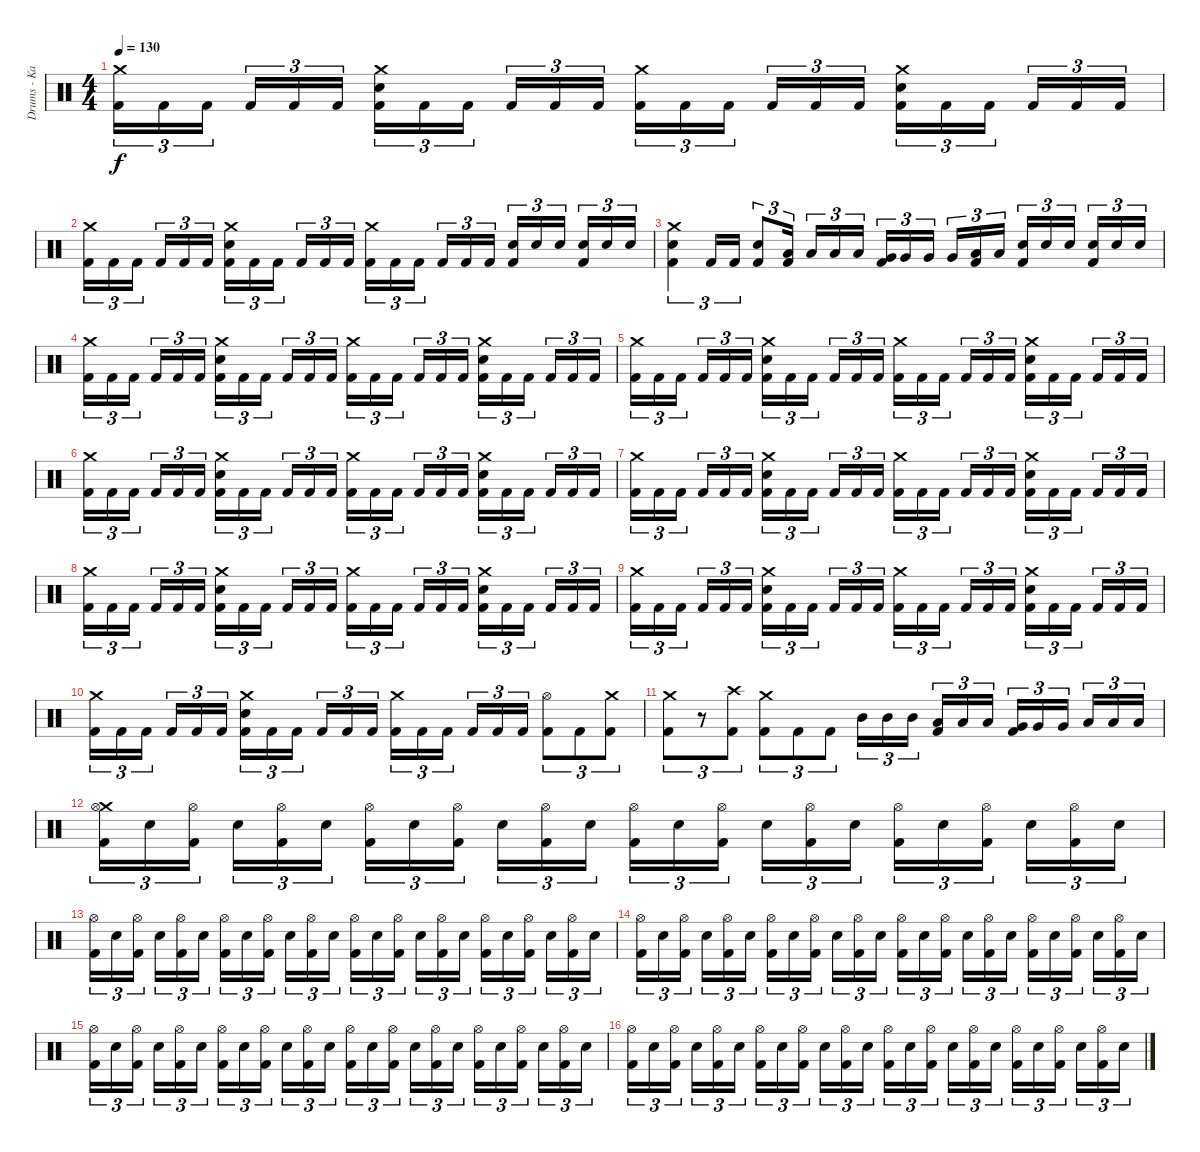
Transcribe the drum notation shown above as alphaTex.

\track ("Drums - Kai Hahto " "Drums - Ka") {instrument percussion}
\staff {score}
\articulation defaults
\ts (4 4)
\tempo 130
\clef neutral
\ks c
("Crash medium (hit)" "Kick (hit) 2").16{tu (3 2) dy f} "Kick (hit) 2".16{tu (3 2)} "Kick (hit) 2".16{tu (3 2) beam splitsecondary} "Kick (hit) 2".16{tu (3 2)} "Kick (hit) 2".16{tu (3 2)} "Kick (hit) 2".16{tu (3 2)} ("Crash medium (hit)" "Snare (hit) 2" "Kick (hit) 2").16{tu (3 2)} "Kick (hit) 2".16{tu (3 2)} "Kick (hit) 2".16{tu (3 2) beam splitsecondary} "Kick (hit) 2".16{tu (3 2)} "Kick (hit) 2".16{tu (3 2)} "Kick (hit) 2".16{tu (3 2)} ("Crash medium (hit)" "Kick (hit) 2").16{tu (3 2)} "Kick (hit) 2".16{tu (3 2)} "Kick (hit) 2".16{tu (3 2) beam splitsecondary} "Kick (hit) 2".16{tu (3 2)} "Kick (hit) 2".16{tu (3 2)} "Kick (hit) 2".16{tu (3 2)} ("Crash medium (hit)" "Snare (hit) 2" "Kick (hit) 2").16{tu (3 2)} "Kick (hit) 2".16{tu (3 2)} "Kick (hit) 2".16{tu (3 2) beam splitsecondary} "Kick (hit) 2".16{tu (3 2)} "Kick (hit) 2".16{tu (3 2)} "Kick (hit) 2".16{tu (3 2)} |
("Crash medium (hit)" "Kick (hit) 2").16{tu (3 2)} "Kick (hit) 2".16{tu (3 2)} "Kick (hit) 2".16{tu (3 2) beam splitsecondary} "Kick (hit) 2".16{tu (3 2)} "Kick (hit) 2".16{tu (3 2)} "Kick (hit) 2".16{tu (3 2)} ("Crash medium (hit)" "Snare (hit) 2" "Kick (hit) 2").16{tu (3 2)} "Kick (hit) 2".16{tu (3 2)} "Kick (hit) 2".16{tu (3 2) beam splitsecondary} "Kick (hit) 2".16{tu (3 2)} "Kick (hit) 2".16{tu (3 2)} "Kick (hit) 2".16{tu (3 2)} ("Crash medium (hit)" "Kick (hit) 2").16{tu (3 2)} "Kick (hit) 2".16{tu (3 2)} "Kick (hit) 2".16{tu (3 2) beam splitsecondary} "Kick (hit) 2".16{tu (3 2)} "Kick (hit) 2".16{tu (3 2)} "Kick (hit) 2".16{tu (3 2)} ("Snare (hit) 2" "Kick (hit) 2").16{tu (3 2)} "Snare (hit) 2".16{tu (3 2)} "Snare (hit) 2".16{tu (3 2) beam splitsecondary} ("Snare (hit) 2" "Kick (hit) 2").16{tu (3 2)} "Snare (hit) 2".16{tu (3 2)} "Snare (hit) 2".16{tu (3 2)} |
("Crash medium (hit)" "Snare (hit) 2" "Kick (hit) 2").4{tu (3 2)} "Kick (hit) 2".16{tu (3 2)} "Kick (hit) 2".16{tu (3 2)} ("Snare (hit) 2" "Kick (hit) 2").8{tu (3 2)} ("Low Tom (hit)" "Kick (hit) 2").16{tu (3 2) beam splitsecondary} "Low Tom (hit)".16{tu (3 2)} "Low Tom (hit)".16{tu (3 2)} "Low Tom (hit)".16{tu (3 2)} ("Very Low Tom (hit)" "Kick (hit) 2").16{tu (3 2)} "Very Low Tom (hit)".16{tu (3 2)} "Very Low Tom (hit)".16{tu (3 2) beam splitsecondary} "Very Low Tom (hit)".16{tu (3 2)} ("Low Floor Tom (hit)" "Kick (hit) 2").16{tu (3 2)} "Low Floor Tom (hit)".16{tu (3 2)} ("Snare (hit) 2" "Kick (hit) 2").16{tu (3 2)} "Snare (hit) 2".16{tu (3 2)} "Snare (hit) 2".16{tu (3 2) beam splitsecondary} ("Snare (hit) 2" "Kick (hit) 2").16{tu (3 2)} "Snare (hit) 2".16{tu (3 2)} "Snare (hit) 2".16{tu (3 2)} |
("Crash medium (hit)" "Kick (hit) 2").16{tu (3 2)} "Kick (hit) 2".16{tu (3 2)} "Kick (hit) 2".16{tu (3 2) beam splitsecondary} "Kick (hit) 2".16{tu (3 2)} "Kick (hit) 2".16{tu (3 2)} "Kick (hit) 2".16{tu (3 2)} ("Crash medium (hit)" "Snare (hit) 2" "Kick (hit) 2").16{tu (3 2)} "Kick (hit) 2".16{tu (3 2)} "Kick (hit) 2".16{tu (3 2) beam splitsecondary} "Kick (hit) 2".16{tu (3 2)} "Kick (hit) 2".16{tu (3 2)} "Kick (hit) 2".16{tu (3 2)} ("Crash medium (hit)" "Kick (hit) 2").16{tu (3 2)} "Kick (hit) 2".16{tu (3 2)} "Kick (hit) 2".16{tu (3 2) beam splitsecondary} "Kick (hit) 2".16{tu (3 2)} "Kick (hit) 2".16{tu (3 2)} "Kick (hit) 2".16{tu (3 2)} ("Crash medium (hit)" "Snare (hit) 2" "Kick (hit) 2").16{tu (3 2)} "Kick (hit) 2".16{tu (3 2)} "Kick (hit) 2".16{tu (3 2) beam splitsecondary} "Kick (hit) 2".16{tu (3 2)} "Kick (hit) 2".16{tu (3 2)} "Kick (hit) 2".16{tu (3 2)} |
("Crash medium (hit)" "Kick (hit) 2").16{tu (3 2)} "Kick (hit) 2".16{tu (3 2)} "Kick (hit) 2".16{tu (3 2) beam splitsecondary} "Kick (hit) 2".16{tu (3 2)} "Kick (hit) 2".16{tu (3 2)} "Kick (hit) 2".16{tu (3 2)} ("Crash medium (hit)" "Snare (hit) 2" "Kick (hit) 2").16{tu (3 2)} "Kick (hit) 2".16{tu (3 2)} "Kick (hit) 2".16{tu (3 2) beam splitsecondary} "Kick (hit) 2".16{tu (3 2)} "Kick (hit) 2".16{tu (3 2)} "Kick (hit) 2".16{tu (3 2)} ("Crash medium (hit)" "Kick (hit) 2").16{tu (3 2)} "Kick (hit) 2".16{tu (3 2)} "Kick (hit) 2".16{tu (3 2) beam splitsecondary} "Kick (hit) 2".16{tu (3 2)} "Kick (hit) 2".16{tu (3 2)} "Kick (hit) 2".16{tu (3 2)} ("Crash medium (hit)" "Snare (hit) 2" "Kick (hit) 2").16{tu (3 2)} "Kick (hit) 2".16{tu (3 2)} "Kick (hit) 2".16{tu (3 2) beam splitsecondary} "Kick (hit) 2".16{tu (3 2)} "Kick (hit) 2".16{tu (3 2)} "Kick (hit) 2".16{tu (3 2)} |
("Crash medium (hit)" "Kick (hit) 2").16{tu (3 2)} "Kick (hit) 2".16{tu (3 2)} "Kick (hit) 2".16{tu (3 2) beam splitsecondary} "Kick (hit) 2".16{tu (3 2)} "Kick (hit) 2".16{tu (3 2)} "Kick (hit) 2".16{tu (3 2)} ("Crash medium (hit)" "Snare (hit) 2" "Kick (hit) 2").16{tu (3 2)} "Kick (hit) 2".16{tu (3 2)} "Kick (hit) 2".16{tu (3 2) beam splitsecondary} "Kick (hit) 2".16{tu (3 2)} "Kick (hit) 2".16{tu (3 2)} "Kick (hit) 2".16{tu (3 2)} ("Crash medium (hit)" "Kick (hit) 2").16{tu (3 2)} "Kick (hit) 2".16{tu (3 2)} "Kick (hit) 2".16{tu (3 2) beam splitsecondary} "Kick (hit) 2".16{tu (3 2)} "Kick (hit) 2".16{tu (3 2)} "Kick (hit) 2".16{tu (3 2)} ("Crash medium (hit)" "Snare (hit) 2" "Kick (hit) 2").16{tu (3 2)} "Kick (hit) 2".16{tu (3 2)} "Kick (hit) 2".16{tu (3 2) beam splitsecondary} "Kick (hit) 2".16{tu (3 2)} "Kick (hit) 2".16{tu (3 2)} "Kick (hit) 2".16{tu (3 2)} |
("Crash medium (hit)" "Kick (hit) 2").16{tu (3 2)} "Kick (hit) 2".16{tu (3 2)} "Kick (hit) 2".16{tu (3 2) beam splitsecondary} "Kick (hit) 2".16{tu (3 2)} "Kick (hit) 2".16{tu (3 2)} "Kick (hit) 2".16{tu (3 2)} ("Crash medium (hit)" "Snare (hit) 2" "Kick (hit) 2").16{tu (3 2)} "Kick (hit) 2".16{tu (3 2)} "Kick (hit) 2".16{tu (3 2) beam splitsecondary} "Kick (hit) 2".16{tu (3 2)} "Kick (hit) 2".16{tu (3 2)} "Kick (hit) 2".16{tu (3 2)} ("Crash medium (hit)" "Kick (hit) 2").16{tu (3 2)} "Kick (hit) 2".16{tu (3 2)} "Kick (hit) 2".16{tu (3 2) beam splitsecondary} "Kick (hit) 2".16{tu (3 2)} "Kick (hit) 2".16{tu (3 2)} "Kick (hit) 2".16{tu (3 2)} ("Crash medium (hit)" "Snare (hit) 2" "Kick (hit) 2").16{tu (3 2)} "Kick (hit) 2".16{tu (3 2)} "Kick (hit) 2".16{tu (3 2) beam splitsecondary} "Kick (hit) 2".16{tu (3 2)} "Kick (hit) 2".16{tu (3 2)} "Kick (hit) 2".16{tu (3 2)} |
("Crash medium (hit)" "Kick (hit) 2").16{tu (3 2)} "Kick (hit) 2".16{tu (3 2)} "Kick (hit) 2".16{tu (3 2) beam splitsecondary} "Kick (hit) 2".16{tu (3 2)} "Kick (hit) 2".16{tu (3 2)} "Kick (hit) 2".16{tu (3 2)} ("Crash medium (hit)" "Snare (hit) 2" "Kick (hit) 2").16{tu (3 2)} "Kick (hit) 2".16{tu (3 2)} "Kick (hit) 2".16{tu (3 2) beam splitsecondary} "Kick (hit) 2".16{tu (3 2)} "Kick (hit) 2".16{tu (3 2)} "Kick (hit) 2".16{tu (3 2)} ("Crash medium (hit)" "Kick (hit) 2").16{tu (3 2)} "Kick (hit) 2".16{tu (3 2)} "Kick (hit) 2".16{tu (3 2) beam splitsecondary} "Kick (hit) 2".16{tu (3 2)} "Kick (hit) 2".16{tu (3 2)} "Kick (hit) 2".16{tu (3 2)} ("Crash medium (hit)" "Snare (hit) 2" "Kick (hit) 2").16{tu (3 2)} "Kick (hit) 2".16{tu (3 2)} "Kick (hit) 2".16{tu (3 2) beam splitsecondary} "Kick (hit) 2".16{tu (3 2)} "Kick (hit) 2".16{tu (3 2)} "Kick (hit) 2".16{tu (3 2)} |
("Crash medium (hit)" "Kick (hit) 2").16{tu (3 2)} "Kick (hit) 2".16{tu (3 2)} "Kick (hit) 2".16{tu (3 2) beam splitsecondary} "Kick (hit) 2".16{tu (3 2)} "Kick (hit) 2".16{tu (3 2)} "Kick (hit) 2".16{tu (3 2)} ("Crash medium (hit)" "Snare (hit) 2" "Kick (hit) 2").16{tu (3 2)} "Kick (hit) 2".16{tu (3 2)} "Kick (hit) 2".16{tu (3 2) beam splitsecondary} "Kick (hit) 2".16{tu (3 2)} "Kick (hit) 2".16{tu (3 2)} "Kick (hit) 2".16{tu (3 2)} ("Crash medium (hit)" "Kick (hit) 2").16{tu (3 2)} "Kick (hit) 2".16{tu (3 2)} "Kick (hit) 2".16{tu (3 2) beam splitsecondary} "Kick (hit) 2".16{tu (3 2)} "Kick (hit) 2".16{tu (3 2)} "Kick (hit) 2".16{tu (3 2)} ("Crash medium (hit)" "Snare (hit) 2" "Kick (hit) 2").16{tu (3 2)} "Kick (hit) 2".16{tu (3 2)} "Kick (hit) 2".16{tu (3 2) beam splitsecondary} "Kick (hit) 2".16{tu (3 2)} "Kick (hit) 2".16{tu (3 2)} "Kick (hit) 2".16{tu (3 2)} |
("Crash medium (hit)" "Kick (hit) 2").16{tu (3 2)} "Kick (hit) 2".16{tu (3 2)} "Kick (hit) 2".16{tu (3 2) beam splitsecondary} "Kick (hit) 2".16{tu (3 2)} "Kick (hit) 2".16{tu (3 2)} "Kick (hit) 2".16{tu (3 2)} ("Crash medium (hit)" "Snare (hit) 2" "Kick (hit) 2").16{tu (3 2)} "Kick (hit) 2".16{tu (3 2)} "Kick (hit) 2".16{tu (3 2) beam splitsecondary} "Kick (hit) 2".16{tu (3 2)} "Kick (hit) 2".16{tu (3 2)} "Kick (hit) 2".16{tu (3 2)} ("Crash medium (hit)" "Kick (hit) 2").16{tu (3 2)} "Kick (hit) 2".16{tu (3 2)} "Kick (hit) 2".16{tu (3 2) beam splitsecondary} "Kick (hit) 2".16{tu (3 2)} "Kick (hit) 2".16{tu (3 2)} "Kick (hit) 2".16{tu (3 2)} ("Hi-Hat (open)" "Kick (hit) 2").8{tu (3 2)} "Kick (hit) 2".8{tu (3 2)} ("Crash medium (hit)" "Kick (hit) 2").8{tu (3 2)} |
("Crash medium (hit)" "Kick (hit) 2").8{tu (3 2)} r.8{tu (3 2)} ("Crash high (hit)" "Kick (hit) 2").8{tu (3 2)} ("Crash medium (hit)" "Kick (hit) 2").8{tu (3 2)} "Kick (hit) 2".8{tu (3 2)} "Kick (hit) 2".8{tu (3 2)} "Mid Tom (hit)".16{tu (3 2)} "Mid Tom (hit)".16{tu (3 2)} "Mid Tom (hit)".16{tu (3 2) beam splitsecondary} ("Low Tom (hit)" "Kick (hit) 2").16{tu (3 2)} "Low Tom (hit)".16{tu (3 2)} "Low Tom (hit)".16{tu (3 2)} ("Very Low Tom (hit)" "Kick (hit) 2").16{tu (3 2)} "Very Low Tom (hit)".16{tu (3 2)} "Very Low Tom (hit)".16{tu (3 2) beam splitsecondary} "Low Floor Tom (hit)".16{tu (3 2)} "Low Floor Tom (hit)".16{tu (3 2)} "Low Floor Tom (hit)".16{tu (3 2)} |
("Crash medium (hit)" "Hi-Hat (open)" "Kick (hit) 2").16{tu (3 2)} "Snare (hit) 2".16{tu (3 2)} ("Hi-Hat (open)" "Kick (hit) 2").16{tu (3 2) beam splitsecondary} "Snare (hit) 2".16{tu (3 2)} ("Hi-Hat (open)" "Kick (hit) 2").16{tu (3 2)} "Snare (hit) 2".16{tu (3 2)} ("Hi-Hat (open)" "Kick (hit) 2").16{tu (3 2)} "Snare (hit) 2".16{tu (3 2)} ("Hi-Hat (open)" "Kick (hit) 2").16{tu (3 2) beam splitsecondary} "Snare (hit) 2".16{tu (3 2)} ("Hi-Hat (open)" "Kick (hit) 2").16{tu (3 2)} "Snare (hit) 2".16{tu (3 2)} ("Hi-Hat (open)" "Kick (hit) 2").16{tu (3 2)} "Snare (hit) 2".16{tu (3 2)} ("Hi-Hat (open)" "Kick (hit) 2").16{tu (3 2) beam splitsecondary} "Snare (hit) 2".16{tu (3 2)} ("Hi-Hat (open)" "Kick (hit) 2").16{tu (3 2)} "Snare (hit) 2".16{tu (3 2)} ("Hi-Hat (open)" "Kick (hit) 2").16{tu (3 2)} "Snare (hit) 2".16{tu (3 2)} ("Hi-Hat (open)" "Kick (hit) 2").16{tu (3 2) beam splitsecondary} "Snare (hit) 2".16{tu (3 2)} ("Hi-Hat (open)" "Kick (hit) 2").16{tu (3 2)} "Snare (hit) 2".16{tu (3 2)} |
("Hi-Hat (open)" "Kick (hit) 2").16{tu (3 2)} "Snare (hit) 2".16{tu (3 2)} ("Hi-Hat (open)" "Kick (hit) 2").16{tu (3 2) beam splitsecondary} "Snare (hit) 2".16{tu (3 2)} ("Hi-Hat (open)" "Kick (hit) 2").16{tu (3 2)} "Snare (hit) 2".16{tu (3 2)} ("Hi-Hat (open)" "Kick (hit) 2").16{tu (3 2)} "Snare (hit) 2".16{tu (3 2)} ("Hi-Hat (open)" "Kick (hit) 2").16{tu (3 2) beam splitsecondary} "Snare (hit) 2".16{tu (3 2)} ("Hi-Hat (open)" "Kick (hit) 2").16{tu (3 2)} "Snare (hit) 2".16{tu (3 2)} ("Hi-Hat (open)" "Kick (hit) 2").16{tu (3 2)} "Snare (hit) 2".16{tu (3 2)} ("Hi-Hat (open)" "Kick (hit) 2").16{tu (3 2) beam splitsecondary} "Snare (hit) 2".16{tu (3 2)} ("Hi-Hat (open)" "Kick (hit) 2").16{tu (3 2)} "Snare (hit) 2".16{tu (3 2)} ("Hi-Hat (open)" "Kick (hit) 2").16{tu (3 2)} "Snare (hit) 2".16{tu (3 2)} ("Hi-Hat (open)" "Kick (hit) 2").16{tu (3 2) beam splitsecondary} "Snare (hit) 2".16{tu (3 2)} ("Hi-Hat (open)" "Kick (hit) 2").16{tu (3 2)} "Snare (hit) 2".16{tu (3 2)} |
("Hi-Hat (open)" "Kick (hit) 2").16{tu (3 2)} "Snare (hit) 2".16{tu (3 2)} ("Hi-Hat (open)" "Kick (hit) 2").16{tu (3 2) beam splitsecondary} "Snare (hit) 2".16{tu (3 2)} ("Hi-Hat (open)" "Kick (hit) 2").16{tu (3 2)} "Snare (hit) 2".16{tu (3 2)} ("Hi-Hat (open)" "Kick (hit) 2").16{tu (3 2)} "Snare (hit) 2".16{tu (3 2)} ("Hi-Hat (open)" "Kick (hit) 2").16{tu (3 2) beam splitsecondary} "Snare (hit) 2".16{tu (3 2)} ("Hi-Hat (open)" "Kick (hit) 2").16{tu (3 2)} "Snare (hit) 2".16{tu (3 2)} ("Hi-Hat (open)" "Kick (hit) 2").16{tu (3 2)} "Snare (hit) 2".16{tu (3 2)} ("Hi-Hat (open)" "Kick (hit) 2").16{tu (3 2) beam splitsecondary} "Snare (hit) 2".16{tu (3 2)} ("Hi-Hat (open)" "Kick (hit) 2").16{tu (3 2)} "Snare (hit) 2".16{tu (3 2)} ("Hi-Hat (open)" "Kick (hit) 2").16{tu (3 2)} "Snare (hit) 2".16{tu (3 2)} ("Hi-Hat (open)" "Kick (hit) 2").16{tu (3 2) beam splitsecondary} "Snare (hit) 2".16{tu (3 2)} ("Hi-Hat (open)" "Kick (hit) 2").16{tu (3 2)} "Snare (hit) 2".16{tu (3 2)} |
("Hi-Hat (open)" "Kick (hit) 2").16{tu (3 2)} "Snare (hit) 2".16{tu (3 2)} ("Hi-Hat (open)" "Kick (hit) 2").16{tu (3 2) beam splitsecondary} "Snare (hit) 2".16{tu (3 2)} ("Hi-Hat (open)" "Kick (hit) 2").16{tu (3 2)} "Snare (hit) 2".16{tu (3 2)} ("Hi-Hat (open)" "Kick (hit) 2").16{tu (3 2)} "Snare (hit) 2".16{tu (3 2)} ("Hi-Hat (open)" "Kick (hit) 2").16{tu (3 2) beam splitsecondary} "Snare (hit) 2".16{tu (3 2)} ("Hi-Hat (open)" "Kick (hit) 2").16{tu (3 2)} "Snare (hit) 2".16{tu (3 2)} ("Hi-Hat (open)" "Kick (hit) 2").16{tu (3 2)} "Snare (hit) 2".16{tu (3 2)} ("Hi-Hat (open)" "Kick (hit) 2").16{tu (3 2) beam splitsecondary} "Snare (hit) 2".16{tu (3 2)} ("Hi-Hat (open)" "Kick (hit) 2").16{tu (3 2)} "Snare (hit) 2".16{tu (3 2)} ("Hi-Hat (open)" "Kick (hit) 2").16{tu (3 2)} "Snare (hit) 2".16{tu (3 2)} ("Hi-Hat (open)" "Kick (hit) 2").16{tu (3 2) beam splitsecondary} "Snare (hit) 2".16{tu (3 2)} ("Hi-Hat (open)" "Kick (hit) 2").16{tu (3 2)} "Snare (hit) 2".16{tu (3 2)} |
("Hi-Hat (open)" "Kick (hit) 2").16{tu (3 2)} "Snare (hit) 2".16{tu (3 2)} ("Hi-Hat (open)" "Kick (hit) 2").16{tu (3 2) beam splitsecondary} "Snare (hit) 2".16{tu (3 2)} ("Hi-Hat (open)" "Kick (hit) 2").16{tu (3 2)} "Snare (hit) 2".16{tu (3 2)} ("Hi-Hat (open)" "Kick (hit) 2").16{tu (3 2)} "Snare (hit) 2".16{tu (3 2)} ("Hi-Hat (open)" "Kick (hit) 2").16{tu (3 2) beam splitsecondary} "Snare (hit) 2".16{tu (3 2)} ("Hi-Hat (open)" "Kick (hit) 2").16{tu (3 2)} "Snare (hit) 2".16{tu (3 2)} ("Hi-Hat (open)" "Kick (hit) 2").16{tu (3 2)} "Snare (hit) 2".16{tu (3 2)} ("Hi-Hat (open)" "Kick (hit) 2").16{tu (3 2) beam splitsecondary} "Snare (hit) 2".16{tu (3 2)} ("Hi-Hat (open)" "Kick (hit) 2").16{tu (3 2)} "Snare (hit) 2".16{tu (3 2)} ("Hi-Hat (open)" "Kick (hit) 2").16{tu (3 2)} "Snare (hit) 2".16{tu (3 2)} ("Hi-Hat (open)" "Kick (hit) 2").16{tu (3 2) beam splitsecondary} "Snare (hit) 2".16{tu (3 2)} ("Hi-Hat (open)" "Kick (hit) 2").16{tu (3 2)} "Snare (hit) 2".16{tu (3 2)}
